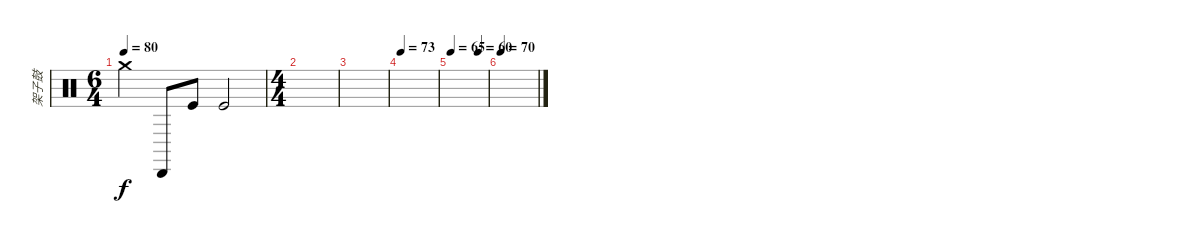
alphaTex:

\track ("架子鼓" "架子鼓") {instrument percussion}
\staff {score}
\articulation defaults
\ts (6 4)
\tempo 80
\clef neutral
\ks c "Crash medium (hit)".4{dy f} "Cabasa (hit)".8 "Kick (hit)".8 "Kick (hit)".2
|
\ts (4 4)
|
|
\tempo 73
|
\tempo 65
\tempo (60 0.75)
|
\tempo 70
